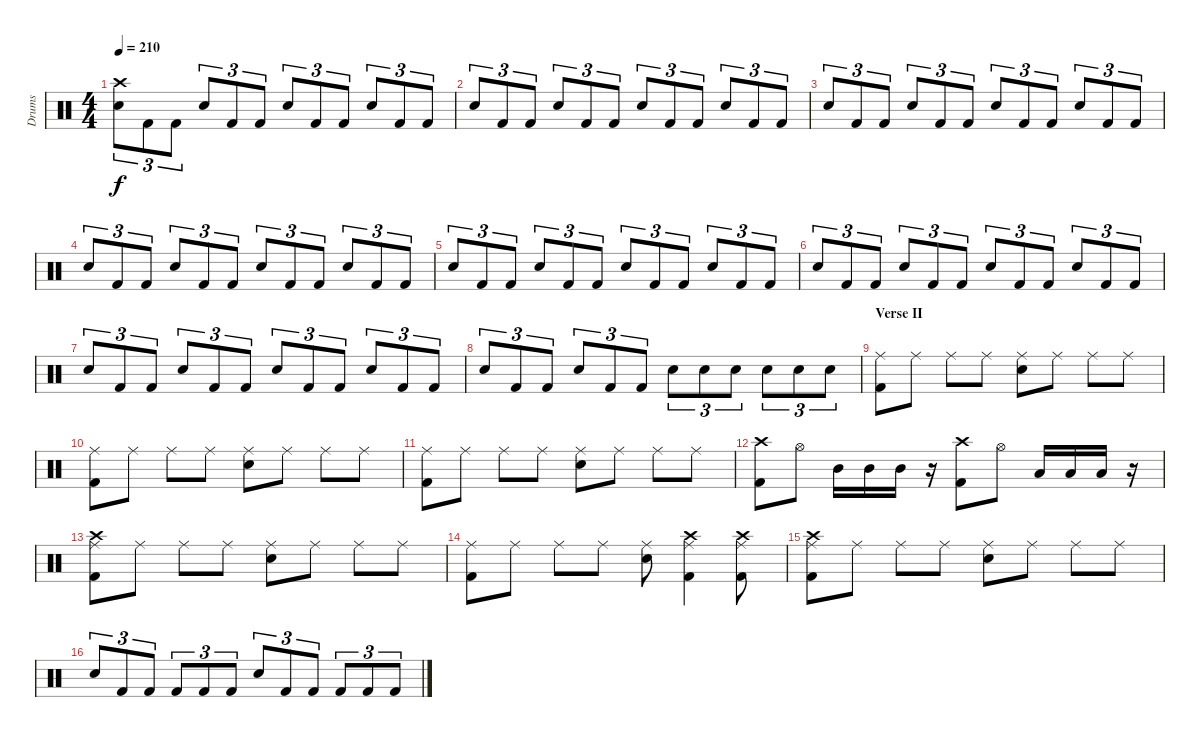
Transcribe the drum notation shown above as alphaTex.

\track ("Drums" "Drums") {instrument percussion}
\staff {score}
\articulation defaults
\ts (4 4)
\tempo 210
\clef neutral
\ks c
("Crash high (hit)" "Electric Snare (hit)").8{tu (3 2) dy f} "Kick (hit) 2".8{tu (3 2)} "Kick (hit) 2".8{tu (3 2)} "Electric Snare (hit)".8{tu (3 2)} "Kick (hit) 2".8{tu (3 2)} "Kick (hit) 2".8{tu (3 2)} "Electric Snare (hit)".8{tu (3 2)} "Kick (hit) 2".8{tu (3 2)} "Kick (hit) 2".8{tu (3 2)} "Electric Snare (hit)".8{tu (3 2)} "Kick (hit) 2".8{tu (3 2)} "Kick (hit) 2".8{tu (3 2)} |
"Electric Snare (hit)".8{tu (3 2)} "Kick (hit) 2".8{tu (3 2)} "Kick (hit) 2".8{tu (3 2)} "Electric Snare (hit)".8{tu (3 2)} "Kick (hit) 2".8{tu (3 2)} "Kick (hit) 2".8{tu (3 2)} "Electric Snare (hit)".8{tu (3 2)} "Kick (hit) 2".8{tu (3 2)} "Kick (hit) 2".8{tu (3 2)} "Electric Snare (hit)".8{tu (3 2)} "Kick (hit) 2".8{tu (3 2)} "Kick (hit) 2".8{tu (3 2)} |
"Electric Snare (hit)".8{tu (3 2)} "Kick (hit) 2".8{tu (3 2)} "Kick (hit) 2".8{tu (3 2)} "Electric Snare (hit)".8{tu (3 2)} "Kick (hit) 2".8{tu (3 2)} "Kick (hit) 2".8{tu (3 2)} "Electric Snare (hit)".8{tu (3 2)} "Kick (hit) 2".8{tu (3 2)} "Kick (hit) 2".8{tu (3 2)} "Electric Snare (hit)".8{tu (3 2)} "Kick (hit) 2".8{tu (3 2)} "Kick (hit) 2".8{tu (3 2)} |
"Electric Snare (hit)".8{tu (3 2)} "Kick (hit) 2".8{tu (3 2)} "Kick (hit) 2".8{tu (3 2)} "Electric Snare (hit)".8{tu (3 2)} "Kick (hit) 2".8{tu (3 2)} "Kick (hit) 2".8{tu (3 2)} "Electric Snare (hit)".8{tu (3 2)} "Kick (hit) 2".8{tu (3 2)} "Kick (hit) 2".8{tu (3 2)} "Electric Snare (hit)".8{tu (3 2)} "Kick (hit) 2".8{tu (3 2)} "Kick (hit) 2".8{tu (3 2)} |
"Electric Snare (hit)".8{tu (3 2)} "Kick (hit) 2".8{tu (3 2)} "Kick (hit) 2".8{tu (3 2)} "Electric Snare (hit)".8{tu (3 2)} "Kick (hit) 2".8{tu (3 2)} "Kick (hit) 2".8{tu (3 2)} "Electric Snare (hit)".8{tu (3 2)} "Kick (hit) 2".8{tu (3 2)} "Kick (hit) 2".8{tu (3 2)} "Electric Snare (hit)".8{tu (3 2)} "Kick (hit) 2".8{tu (3 2)} "Kick (hit) 2".8{tu (3 2)} |
"Electric Snare (hit)".8{tu (3 2)} "Kick (hit) 2".8{tu (3 2)} "Kick (hit) 2".8{tu (3 2)} "Electric Snare (hit)".8{tu (3 2)} "Kick (hit) 2".8{tu (3 2)} "Kick (hit) 2".8{tu (3 2)} "Electric Snare (hit)".8{tu (3 2)} "Kick (hit) 2".8{tu (3 2)} "Kick (hit) 2".8{tu (3 2)} "Electric Snare (hit)".8{tu (3 2)} "Kick (hit) 2".8{tu (3 2)} "Kick (hit) 2".8{tu (3 2)} |
"Electric Snare (hit)".8{tu (3 2)} "Kick (hit) 2".8{tu (3 2)} "Kick (hit) 2".8{tu (3 2)} "Electric Snare (hit)".8{tu (3 2)} "Kick (hit) 2".8{tu (3 2)} "Kick (hit) 2".8{tu (3 2)} "Electric Snare (hit)".8{tu (3 2)} "Kick (hit) 2".8{tu (3 2)} "Kick (hit) 2".8{tu (3 2)} "Electric Snare (hit)".8{tu (3 2)} "Kick (hit) 2".8{tu (3 2)} "Kick (hit) 2".8{tu (3 2)} |
"Electric Snare (hit)".8{tu (3 2)} "Kick (hit) 2".8{tu (3 2)} "Kick (hit) 2".8{tu (3 2)} "Electric Snare (hit)".8{tu (3 2)} "Kick (hit) 2".8{tu (3 2)} "Kick (hit) 2".8{tu (3 2)} "Electric Snare (hit)".8{tu (3 2)} "Electric Snare (hit)".8{tu (3 2)} "Electric Snare (hit)".8{tu (3 2)} "Electric Snare (hit)".8{tu (3 2)} "Electric Snare (hit)".8{tu (3 2)} "Electric Snare (hit)".8{tu (3 2)} |
\section ("" "Verse II")
("Ride (middle)" "Kick (hit) 2").8 "Ride (middle)".8 "Ride (middle)".8 "Ride (middle)".8 ("Ride (middle)" "Electric Snare (hit)").8 "Ride (middle)".8 "Ride (middle)".8 "Ride (middle)".8 |
("Ride (middle)" "Kick (hit) 2").8 "Ride (middle)".8 "Ride (middle)".8 "Ride (middle)".8 ("Ride (middle)" "Electric Snare (hit)").8 "Ride (middle)".8 "Ride (middle)".8 "Ride (middle)".8 |
("Ride (middle)" "Kick (hit) 2").8 "Ride (middle)".8 "Ride (middle)".8 "Ride (middle)".8 ("Ride (middle)" "Electric Snare (hit)").8 "Ride (middle)".8 "Ride (middle)".8 "Ride (middle)".8 |
("Crash high (hit)" "Kick (hit) 2").8 "Hi-Hat (open)".8 "Mid Tom (hit)".16 "Mid Tom (hit)".16 "Mid Tom (hit)".16 r.16 ("Crash high (hit)" "Kick (hit) 2").8 "Hi-Hat (open)".8 "Low Tom (hit)".16 "Low Tom (hit)".16 "Low Floor Tom (hit)".16 r.16 |
("Crash high (hit)" "Ride (middle)" "Kick (hit) 2").8 "Ride (middle)".8 "Ride (middle)".8 "Ride (middle)".8 ("Ride (middle)" "Electric Snare (hit)").8 "Ride (middle)".8 "Ride (middle)".8 "Ride (middle)".8 |
("Ride (middle)" "Kick (hit) 2").8 "Ride (middle)".8 "Ride (middle)".8 "Ride (middle)".8 ("Ride (middle)" "Electric Snare (hit)").8 ("Crash high (hit)" "Ride (middle)" "Kick (hit) 2").4 ("Crash high (hit)" "Ride (middle)" "Kick (hit) 2").8 |
("Crash high (hit)" "Ride (middle)" "Kick (hit) 2").8 "Ride (middle)".8 "Ride (middle)".8 "Ride (middle)".8 ("Ride (middle)" "Electric Snare (hit)").8 "Ride (middle)".8 "Ride (middle)".8 "Ride (middle)".8 |
"Electric Snare (hit)".8{tu (3 2)} "Kick (hit) 2".8{tu (3 2)} "Kick (hit) 2".8{tu (3 2)} "Kick (hit) 2".8{tu (3 2)} "Kick (hit) 2".8{tu (3 2)} "Kick (hit) 2".8{tu (3 2)} "Electric Snare (hit)".8{tu (3 2)} "Kick (hit) 2".8{tu (3 2)} "Kick (hit) 2".8{tu (3 2)} "Kick (hit) 2".8{tu (3 2)} "Kick (hit) 2".8{tu (3 2)} "Kick (hit) 2".8{tu (3 2)}
